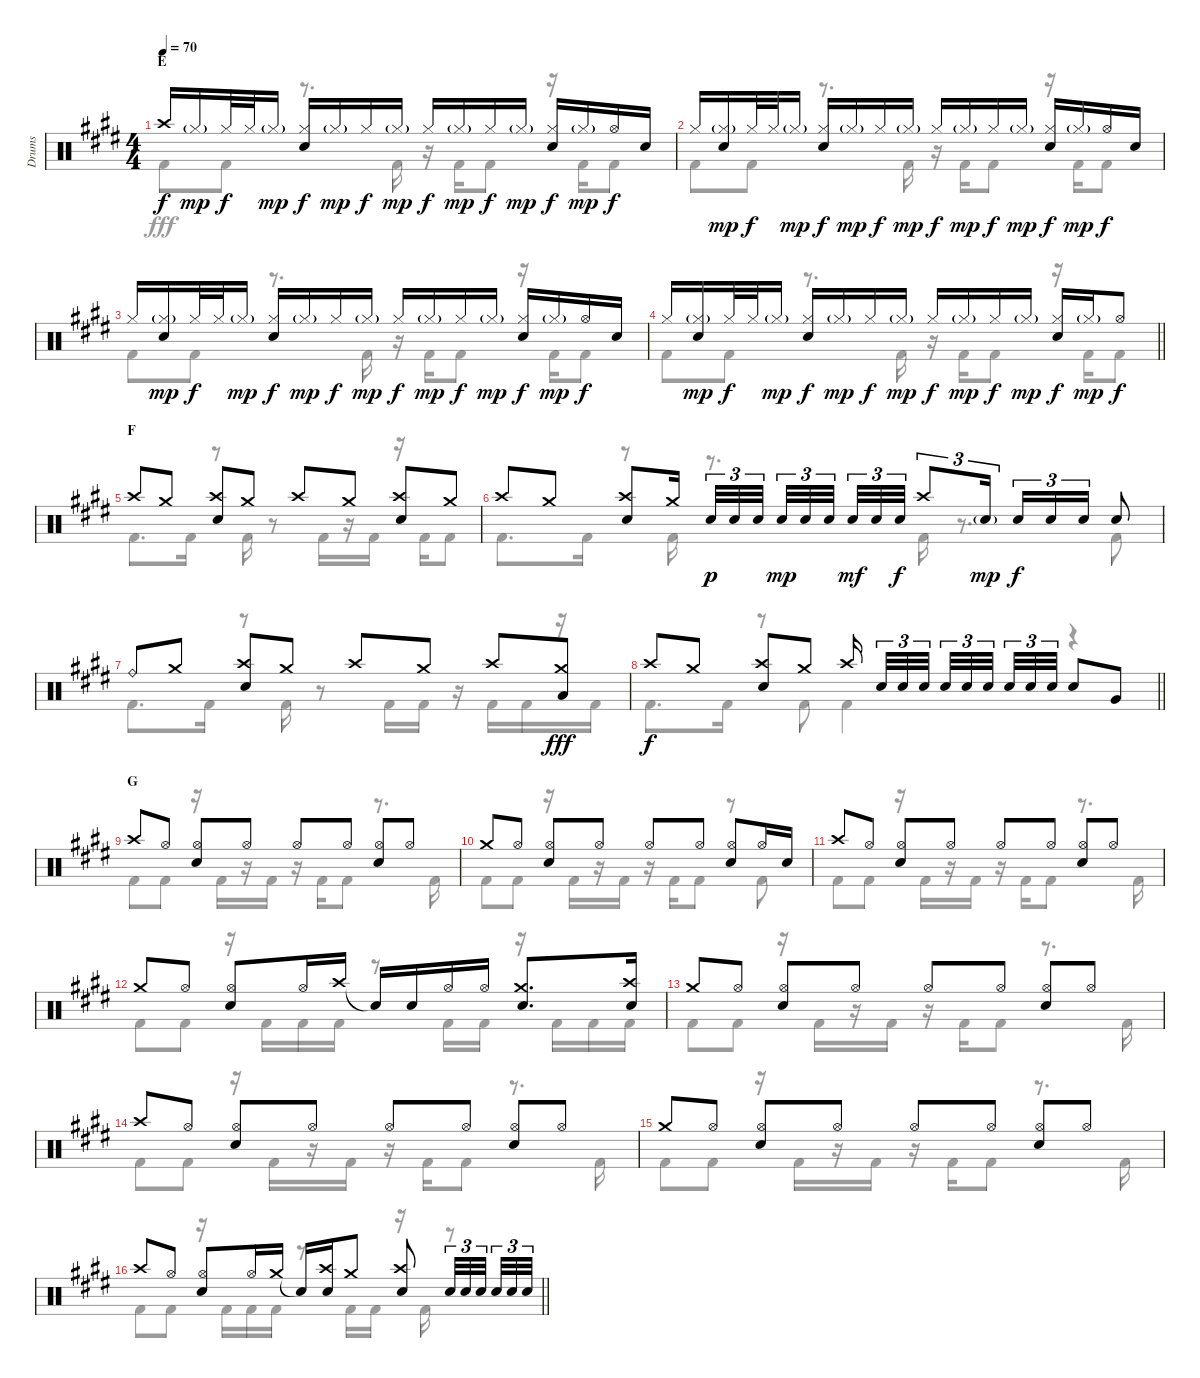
\track ("Drums" "Drums") {instrument percussion}
\staff {score}
\articulation defaults
\voice
\ts (4 4)
\section ("" "E")
\tempo 70
\clef neutral
\ks e "Crash high (hit)".16{dy f} "Hi-Hat (closed)"{g}.16{dy mp} "Hi-Hat (closed)".32{dy f} "Hi-Hat (closed)".32 "Hi-Hat (closed)"{g}.16{dy mp}
("Hi-Hat (closed)" "Snare (hit) 2").16{dy f} "Hi-Hat (closed)"{g}.16{dy mp} "Hi-Hat (closed)".16{dy f} "Hi-Hat (closed)"{g}.16{dy mp} "Hi-Hat (closed)".16{dy f} "Hi-Hat (closed)"{g}.16{dy mp} "Hi-Hat (closed)".16{dy f} "Hi-Hat (closed)"{g}.16{dy mp} ("Hi-Hat (closed)" "Snare (hit) 2").16{dy f} "Hi-Hat (closed)"{g}.16{dy mp} "Hi-Hat (open)".16{dy f} "Snare (hit) 2".16 |
"Hi-Hat (closed)".16 ("Hi-Hat (closed)"{g} "Snare (hit) 2").16{dy mp} "Hi-Hat (closed)".32{dy f} "Hi-Hat (closed)".32 "Hi-Hat (closed)"{g}.16{dy mp} ("Hi-Hat (closed)" "Snare (hit) 2").16{dy f} "Hi-Hat (closed)"{g}.16{dy mp} "Hi-Hat (closed)".16{dy f} "Hi-Hat (closed)"{g}.16{dy mp} "Hi-Hat (closed)".16{dy f} "Hi-Hat (closed)"{g}.16{dy mp} "Hi-Hat (closed)".16{dy f} "Hi-Hat (closed)"{g}.16{dy mp} ("Hi-Hat (closed)" "Snare (hit) 2").16{dy f} "Hi-Hat (closed)"{g}.16{dy mp} "Hi-Hat (open)".16{dy f} "Snare (hit) 2".16 |
"Hi-Hat (closed)".16 ("Hi-Hat (closed)"{g} "Snare (hit) 2").16{dy mp} "Hi-Hat (closed)".32{dy f} "Hi-Hat (closed)".32 "Hi-Hat (closed)"{g}.16{dy mp} ("Hi-Hat (closed)" "Snare (hit) 2").16{dy f} "Hi-Hat (closed)"{g}.16{dy mp} "Hi-Hat (closed)".16{dy f} "Hi-Hat (closed)"{g}.16{dy mp} "Hi-Hat (closed)".16{dy f} "Hi-Hat (closed)"{g}.16{dy mp} "Hi-Hat (closed)".16{dy f} "Hi-Hat (closed)"{g}.16{dy mp} ("Hi-Hat (closed)" "Snare (hit) 2").16{dy f} "Hi-Hat (closed)"{g}.16{dy mp} "Hi-Hat (open)".16{dy f} "Snare (hit) 2".16 |
\barLineRight lightlight "Hi-Hat (closed)".16
("Hi-Hat (closed)"{g} "Snare (hit) 2").16{dy mp} "Hi-Hat (closed)".32{dy f} "Hi-Hat (closed)".32 "Hi-Hat (closed)"{g}.16{dy mp} ("Hi-Hat (closed)" "Snare (hit) 2").16{dy f} "Hi-Hat (closed)"{g}.16{dy mp} "Hi-Hat (closed)".16{dy f} "Hi-Hat (closed)"{g}.16{dy mp} "Hi-Hat (closed)".16{dy f} "Hi-Hat (closed)"{g}.16{dy mp} "Hi-Hat (closed)".16{dy f} "Hi-Hat (closed)"{g}.16{dy mp} ("Hi-Hat (closed)" "Snare (hit) 2").16{dy f} "Hi-Hat (closed)"{g}.16{dy mp} "Hi-Hat (open)".8{dy f} |
\section ("" "F")
"Crash high (hit)".8 "Crash medium (hit)".8 ("Crash high (hit)" "Snare (hit) 2").8 "Crash medium (hit)".8 "Crash high (hit)".8 "Crash medium (hit)".8 ("Crash high (hit)" "Snare (hit) 2").8 "Crash medium (hit)".8 |
"Crash high (hit)".8 "Crash medium (hit)".8 ("Crash high (hit)" "Snare (hit) 2").8 "Crash medium (hit)".16{beam splitsecondary} "Snare (hit) 2".32{tu (3 2) dy p} "Snare (hit) 2".32{tu (3 2)} "Snare (hit) 2".32{tu (3 2)} "Snare (hit) 2".32{tu (3 2) dy mp} "Snare (hit) 2".32{tu (3 2)} "Snare (hit) 2".32{tu (3 2) beam splitsecondary} "Snare (hit) 2".32{tu (3 2) dy mf} "Snare (hit) 2".32{tu (3 2)} "Snare (hit) 2".32{tu (3 2) dy f} "Crash high (hit)".8{tu (3 2)} "Snare (hit) 2"{g}.16{tu (3 2) dy mp} "Snare (hit) 2".16{tu (3 2) dy f} "Snare (hit) 2".16{tu (3 2)} "Snare (hit) 2".16{tu (3 2)} "Snare (hit) 2".8 |
"Ride (bell)".8 "Crash medium (hit)".8 ("Crash high (hit)" "Snare (hit) 2").8 "Crash medium (hit)".8 "Crash high (hit)".8 "Crash medium (hit)".8 "Crash high (hit)".8 ("Crash medium (hit)" "Low Tom (hit)").8{dy fff} |
\barLineRight lightlight "Crash high (hit)".8{dy f} "Crash medium (hit)".8
("Crash high (hit)" "Snare (hit) 2").8 "Crash medium (hit)".8 "Crash high (hit)".16{beam splitsecondary} "Snare (hit) 2".32{tu (3 2)} "Snare (hit) 2".32{tu (3 2)} "Snare (hit) 2".32{tu (3 2) beam splitsecondary} "Snare (hit) 2".32{tu (3 2)} "Snare (hit) 2".32{tu (3 2)} "Snare (hit) 2".32{tu (3 2) beam splitsecondary} "Snare (hit) 2".32{tu (3 2)} "Snare (hit) 2".32{tu (3 2)} "Snare (hit) 2".32{tu (3 2)} "Snare (hit) 2".8 "Very Low Tom (hit)".8 |
\section ("" "G")
"Crash high (hit)".8 "Hi-Hat (open)".8 ("Hi-Hat (open)" "Snare (hit) 2").8 "Hi-Hat (open)".8 "Hi-Hat (open)".8 "Hi-Hat (open)".8 ("Hi-Hat (open)" "Snare (hit) 2").8 "Hi-Hat (open)".8 |
"Crash medium (hit)".8 "Hi-Hat (open)".8 ("Hi-Hat (open)" "Snare (hit) 2").8 "Hi-Hat (open)".8 "Hi-Hat (open)".8 "Hi-Hat (open)".8 ("Hi-Hat (open)" "Snare (hit) 2").8 "Hi-Hat (open)".16 "Snare (hit) 2".16 |
"Crash high (hit)".8 "Hi-Hat (open)".8 ("Hi-Hat (open)" "Snare (hit) 2").8 "Hi-Hat (open)".8 "Hi-Hat (open)".8 "Hi-Hat (open)".8 ("Hi-Hat (open)" "Snare (hit) 2").8 "Hi-Hat (open)".8 |
"Crash medium (hit)".8 "Hi-Hat (open)".8 ("Hi-Hat (open)" "Snare (hit) 2").8 "Hi-Hat (open)".16 "Crash high (hit)".16 "Snare (hit)"{t}.16 "Snare (hit) 2".16 "Hi-Hat (open)".16 "Hi-Hat (open)".16 ("Crash medium (hit)" "Snare (hit) 2").8{d} ("Crash high (hit)" "Snare (hit) 2").16 |
"Crash medium (hit)".8 "Hi-Hat (open)".8 ("Hi-Hat (open)" "Snare (hit) 2").8 "Hi-Hat (open)".8 "Hi-Hat (open)".8 "Hi-Hat (open)".8 ("Hi-Hat (open)" "Snare (hit) 2").8 "Hi-Hat (open)".8 |
"Crash high (hit)".8 "Hi-Hat (open)".8 ("Hi-Hat (open)" "Snare (hit) 2").8 "Hi-Hat (open)".8 "Hi-Hat (open)".8 "Hi-Hat (open)".8 ("Hi-Hat (open)" "Snare (hit) 2").8 "Hi-Hat (open)".8 |
"Crash medium (hit)".8 "Hi-Hat (open)".8 ("Hi-Hat (open)" "Snare (hit) 2").8 "Hi-Hat (open)".8 "Hi-Hat (open)".8 "Hi-Hat (open)".8 ("Hi-Hat (open)" "Snare (hit) 2").8 "Hi-Hat (open)".8 |
\barLineRight lightlight "Crash high (hit)".8 "Hi-Hat (open)".8
("Hi-Hat (open)" "Snare (hit) 2").8 "Hi-Hat (open)".16 "Crash medium (hit)".16 "Snare (hit)"{t}.16 ("Crash high (hit)" "Snare (hit) 2").16 "Crash medium (hit)".8 ("Crash high (hit)" "Snare (hit) 2").8 "Snare (hit) 2".32{tu (3 2)} "Snare (hit) 2".32{tu (3 2)} "Snare (hit) 2".32{tu (3 2) beam splitsecondary} "Snare (hit) 2".32{tu (3 2)} "Snare (hit) 2".32{tu (3 2)} "Snare (hit) 2".32{tu (3 2)}
\voice
\clef neutral
\ottava regular
\simile none
\ks e "Kick (hit) 2".8{dy fff} "Kick (hit) 2".8
r.8{d} "Kick (hit) 2".16 r.16 "Kick (hit) 2".16 "Kick (hit) 2".8 r.16 "Kick (hit) 2".16 "Kick (hit) 2".8 |
"Kick (hit) 2".8 "Kick (hit) 2".8 r.8{d} "Kick (hit) 2".16 r.16 "Kick (hit) 2".16 "Kick (hit) 2".8 r.16 "Kick (hit) 2".16 "Kick (hit) 2".8 |
"Kick (hit) 2".8 "Kick (hit) 2".8 r.8{d} "Kick (hit) 2".16 r.16 "Kick (hit) 2".16 "Kick (hit) 2".8 r.16 "Kick (hit) 2".16 "Kick (hit) 2".8 |
\barLineRight lightlight "Kick (hit) 2".8 "Kick (hit) 2".8
r.8{d} "Kick (hit) 2".16 r.16 "Kick (hit) 2".16 "Kick (hit) 2".8 r.16 "Kick (hit) 2".16 "Kick (hit) 2".8 |
"Kick (hit) 2".8{d} "Kick (hit) 2".16 r.8 "Kick (hit) 2".16 r.8 "Kick (hit) 2".16 r.16 "Kick (hit) 2".16 r.16 "Kick (hit) 2".16 "Kick (hit) 2".8 |
"Kick (hit) 2".8{d} "Kick (hit) 2".16 r.8 "Kick (hit) 2".16 r.8{d} "Kick (hit) 2".16 r.8{d} "Kick (hit) 2".8 |
"Kick (hit) 2".8{d} "Kick (hit) 2".16 r.8 "Kick (hit) 2".16 r.8 "Kick (hit) 2".16 "Kick (hit) 2".16 r.16 "Kick (hit) 2".16 "Kick (hit) 2".16 r.16 "Kick (hit) 2".16 |
\barLineRight lightlight "Kick (hit) 2".8{d} "Kick (hit) 2".16
r.8 "Kick (hit) 2".8 "Kick (hit) 2".4 r.4 |
"Kick (hit) 2".8 "Kick (hit) 2".8 r.16 "Kick (hit) 2".16 r.16 "Kick (hit) 2".16 r.16 "Kick (hit) 2".16 "Kick (hit) 2".8 r.8{d} "Kick (hit) 2".16 |
"Kick (hit) 2".8 "Kick (hit) 2".8 r.16 "Kick (hit) 2".16 r.16 "Kick (hit) 2".16 r.16 "Kick (hit) 2".16 "Kick (hit) 2".8 r.8 "Kick (hit) 2".8 |
"Kick (hit) 2".8 "Kick (hit) 2".8 r.16 "Kick (hit) 2".16 r.16 "Kick (hit) 2".16 r.16 "Kick (hit) 2".16 "Kick (hit) 2".8 r.8{d} "Kick (hit) 2".16 |
"Kick (hit) 2".8 "Kick (hit) 2".8 r.16 "Kick (hit) 2".16 "Kick (hit) 2".16 "Kick (hit) 2".16 r.8 "Kick (hit) 2".16 "Kick (hit) 2".16 r.16 "Kick (hit) 2".16 "Kick (hit) 2".16 "Kick (hit) 2".16 |
"Kick (hit) 2".8 "Kick (hit) 2".8 r.16 "Kick (hit) 2".16 r.16 "Kick (hit) 2".16 r.16 "Kick (hit) 2".16 "Kick (hit) 2".8 r.8{d} "Kick (hit) 2".16 |
"Kick (hit) 2".8 "Kick (hit) 2".8 r.16 "Kick (hit) 2".16 r.16 "Kick (hit) 2".16 r.16 "Kick (hit) 2".16 "Kick (hit) 2".8 r.8{d} "Kick (hit) 2".16 |
"Kick (hit) 2".8 "Kick (hit) 2".8 r.16 "Kick (hit) 2".16 r.16 "Kick (hit) 2".16 r.16 "Kick (hit) 2".16 "Kick (hit) 2".8 r.8{d} "Kick (hit) 2".16 |
\barLineRight lightlight "Kick (hit) 2".8 "Kick (hit) 2".8
r.16 "Kick (hit) 2".16 "Kick (hit) 2".16 "Kick (hit) 2".16 r.8 "Kick (hit) 2".16 "Kick (hit) 2".16 r.16 "Kick (hit) 2".16 r.8
